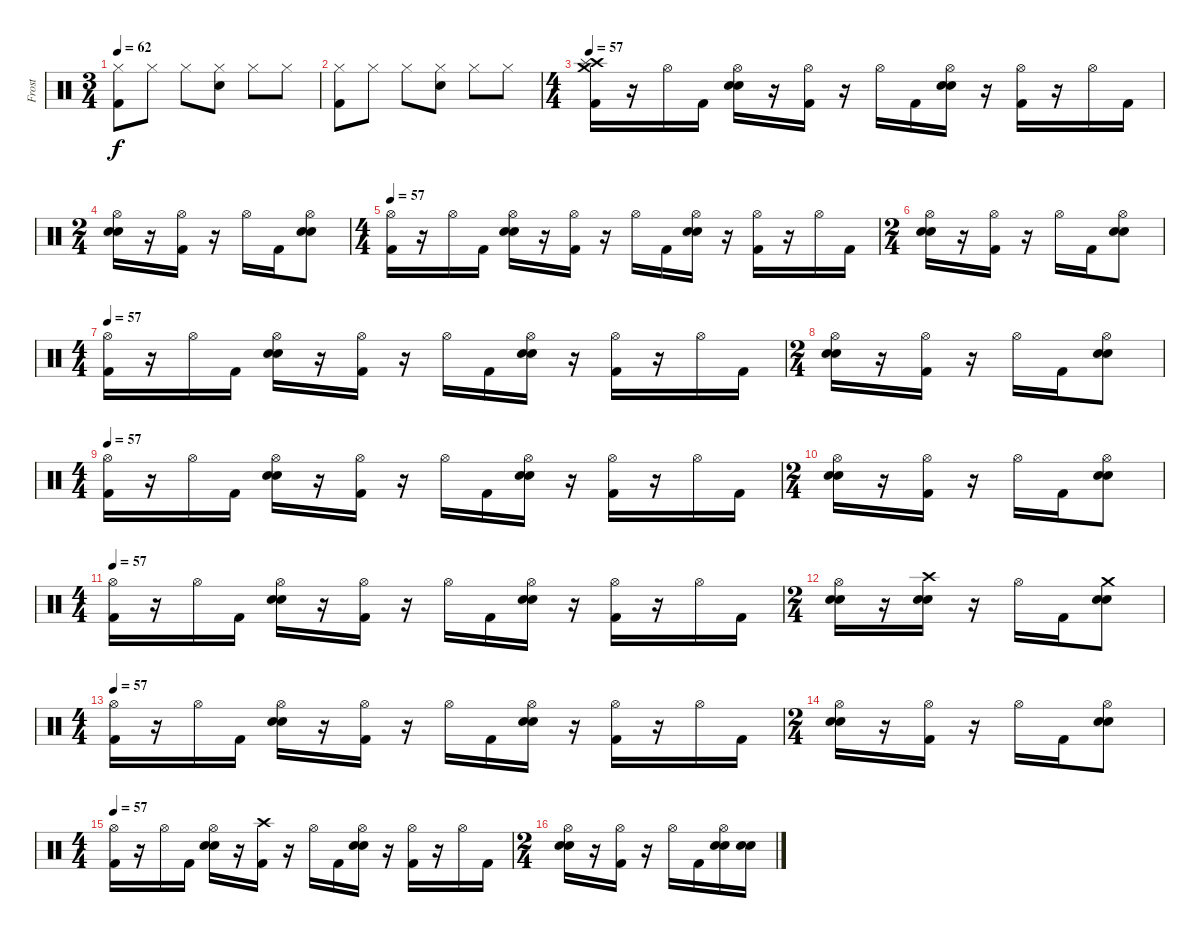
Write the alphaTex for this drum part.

\track ("Frost" "Frost") {instrument percussion}
\staff {score}
\articulation defaults
\ts (3 4)
\tempo 62
\clef neutral
\ks c
("Hi-Hat (closed)" "Kick (hit) 2").8{dy f} "Hi-Hat (closed)".8 "Hi-Hat (closed)".8 ("Hi-Hat (closed)" "Electric Snare (hit)").8 "Hi-Hat (closed)".8 "Hi-Hat (closed)".8 |
("Hi-Hat (closed)" "Kick (hit) 2").8 "Hi-Hat (closed)".8 "Hi-Hat (closed)".8 ("Hi-Hat (closed)" "Electric Snare (hit)").8 "Hi-Hat (closed)".8 "Hi-Hat (closed)".8 |
\ts (4 4)
\tempo 57
("Kick (hit) 2" "Crash medium (hit)" "Crash high (hit)" "Splash (hit)").16 r.16 "Hi-Hat (open)".16 "Kick (hit) 2".16 ("Electric Snare (hit)" "Electric Snare (hit)" "Hi-Hat (open)").16 r.16 ("Kick (hit) 2" "Hi-Hat (open)").16 r.16 "Hi-Hat (open)".16 "Kick (hit) 2".16 ("Electric Snare (hit)" "Electric Snare (hit)" "Hi-Hat (open)").16 r.16 ("Kick (hit) 2" "Hi-Hat (open)").16 r.16 "Hi-Hat (open)".16 "Kick (hit) 2".16 |
\ts (2 4)
("Electric Snare (hit)" "Electric Snare (hit)" "Hi-Hat (open)").16 r.16 ("Kick (hit) 2" "Hi-Hat (open)").16 r.16 "Hi-Hat (open)".16 "Kick (hit) 2".16 ("Electric Snare (hit)" "Electric Snare (hit)" "Hi-Hat (open)").8 |
\ts (4 4)
\tempo 57
("Kick (hit) 2" "Hi-Hat (open)").16 r.16 "Hi-Hat (open)".16 "Kick (hit) 2".16 ("Electric Snare (hit)" "Electric Snare (hit)" "Hi-Hat (open)").16 r.16 ("Kick (hit) 2" "Hi-Hat (open)").16 r.16 "Hi-Hat (open)".16 "Kick (hit) 2".16 ("Electric Snare (hit)" "Electric Snare (hit)" "Hi-Hat (open)").16 r.16 ("Kick (hit) 2" "Hi-Hat (open)").16 r.16 "Hi-Hat (open)".16 "Kick (hit) 2".16 |
\ts (2 4)
("Electric Snare (hit)" "Electric Snare (hit)" "Hi-Hat (open)").16 r.16 ("Kick (hit) 2" "Hi-Hat (open)").16 r.16 "Hi-Hat (open)".16 "Kick (hit) 2".16 ("Electric Snare (hit)" "Electric Snare (hit)" "Hi-Hat (open)").8 |
\ts (4 4)
\tempo 57
("Kick (hit) 2" "Hi-Hat (open)").16 r.16 "Hi-Hat (open)".16 "Kick (hit) 2".16 ("Electric Snare (hit)" "Electric Snare (hit)" "Hi-Hat (open)").16 r.16 ("Kick (hit) 2" "Hi-Hat (open)").16 r.16 "Hi-Hat (open)".16 "Kick (hit) 2".16 ("Electric Snare (hit)" "Electric Snare (hit)" "Hi-Hat (open)").16 r.16 ("Kick (hit) 2" "Hi-Hat (open)").16 r.16 "Hi-Hat (open)".16 "Kick (hit) 2".16 |
\ts (2 4)
("Electric Snare (hit)" "Electric Snare (hit)" "Hi-Hat (open)").16 r.16 ("Kick (hit) 2" "Hi-Hat (open)").16 r.16 "Hi-Hat (open)".16 "Kick (hit) 2".16 ("Electric Snare (hit)" "Electric Snare (hit)" "Hi-Hat (open)").8 |
\ts (4 4)
\tempo 57
("Kick (hit) 2" "Hi-Hat (open)").16 r.16 "Hi-Hat (open)".16 "Kick (hit) 2".16 ("Electric Snare (hit)" "Electric Snare (hit)" "Hi-Hat (open)").16 r.16 ("Kick (hit) 2" "Hi-Hat (open)").16 r.16 "Hi-Hat (open)".16 "Kick (hit) 2".16 ("Electric Snare (hit)" "Electric Snare (hit)" "Hi-Hat (open)").16 r.16 ("Kick (hit) 2" "Hi-Hat (open)").16 r.16 "Hi-Hat (open)".16 "Kick (hit) 2".16 |
\ts (2 4)
("Electric Snare (hit)" "Electric Snare (hit)" "Hi-Hat (open)").16 r.16 ("Kick (hit) 2" "Hi-Hat (open)").16 r.16 "Hi-Hat (open)".16 "Kick (hit) 2".16 ("Electric Snare (hit)" "Electric Snare (hit)" "Hi-Hat (open)").8 |
\ts (4 4)
\tempo 57
("Kick (hit) 2" "Hi-Hat (open)").16 r.16 "Hi-Hat (open)".16 "Kick (hit) 2".16 ("Electric Snare (hit)" "Electric Snare (hit)" "Hi-Hat (open)").16 r.16 ("Kick (hit) 2" "Hi-Hat (open)").16 r.16 "Hi-Hat (open)".16 "Kick (hit) 2".16 ("Electric Snare (hit)" "Electric Snare (hit)" "Hi-Hat (open)").16 r.16 ("Kick (hit) 2" "Hi-Hat (open)").16 r.16 "Hi-Hat (open)".16 "Kick (hit) 2".16 |
\ts (2 4)
("Electric Snare (hit)" "Electric Snare (hit)" "Hi-Hat (open)").16 r.16 ("Electric Snare (hit)" "Electric Snare (hit)" "Crash high (hit)").16 r.16 "Hi-Hat (open)".16 "Kick (hit) 2".16 ("Electric Snare (hit)" "Electric Snare (hit)" "Crash medium (hit)").8 |
\ts (4 4)
\tempo 57
("Kick (hit) 2" "Hi-Hat (open)").16 r.16 "Hi-Hat (open)".16 "Kick (hit) 2".16 ("Electric Snare (hit)" "Electric Snare (hit)" "Hi-Hat (open)").16 r.16 ("Kick (hit) 2" "Hi-Hat (open)").16 r.16 "Hi-Hat (open)".16 "Kick (hit) 2".16 ("Electric Snare (hit)" "Electric Snare (hit)" "Hi-Hat (open)").16 r.16 ("Kick (hit) 2" "Hi-Hat (open)").16 r.16 "Hi-Hat (open)".16 "Kick (hit) 2".16 |
\ts (2 4)
("Electric Snare (hit)" "Electric Snare (hit)" "Hi-Hat (open)").16 r.16 ("Kick (hit) 2" "Hi-Hat (open)").16 r.16 "Hi-Hat (open)".16 "Kick (hit) 2".16 ("Electric Snare (hit)" "Electric Snare (hit)" "Hi-Hat (open)").8 |
\ts (4 4)
\tempo 57
("Kick (hit) 2" "Hi-Hat (open)").16 r.16 "Hi-Hat (open)".16 "Kick (hit) 2".16 ("Electric Snare (hit)" "Electric Snare (hit)" "Hi-Hat (open)").16 r.16 ("Kick (hit) 2" "Crash high (hit)").16 r.16 "Hi-Hat (open)".16 "Kick (hit) 2".16 ("Electric Snare (hit)" "Electric Snare (hit)" "Hi-Hat (open)").16 r.16 ("Kick (hit) 2" "Hi-Hat (open)").16 r.16 "Hi-Hat (open)".16 "Kick (hit) 2".16 |
\ts (2 4)
("Electric Snare (hit)" "Electric Snare (hit)" "Hi-Hat (open)").16 r.16 ("Kick (hit) 2" "Hi-Hat (open)").16 r.16 "Hi-Hat (open)".16 "Kick (hit) 2".16 ("Electric Snare (hit)" "Electric Snare (hit)" "Hi-Hat (open)").16 ("Electric Snare (hit)" "Electric Snare (hit)").16
